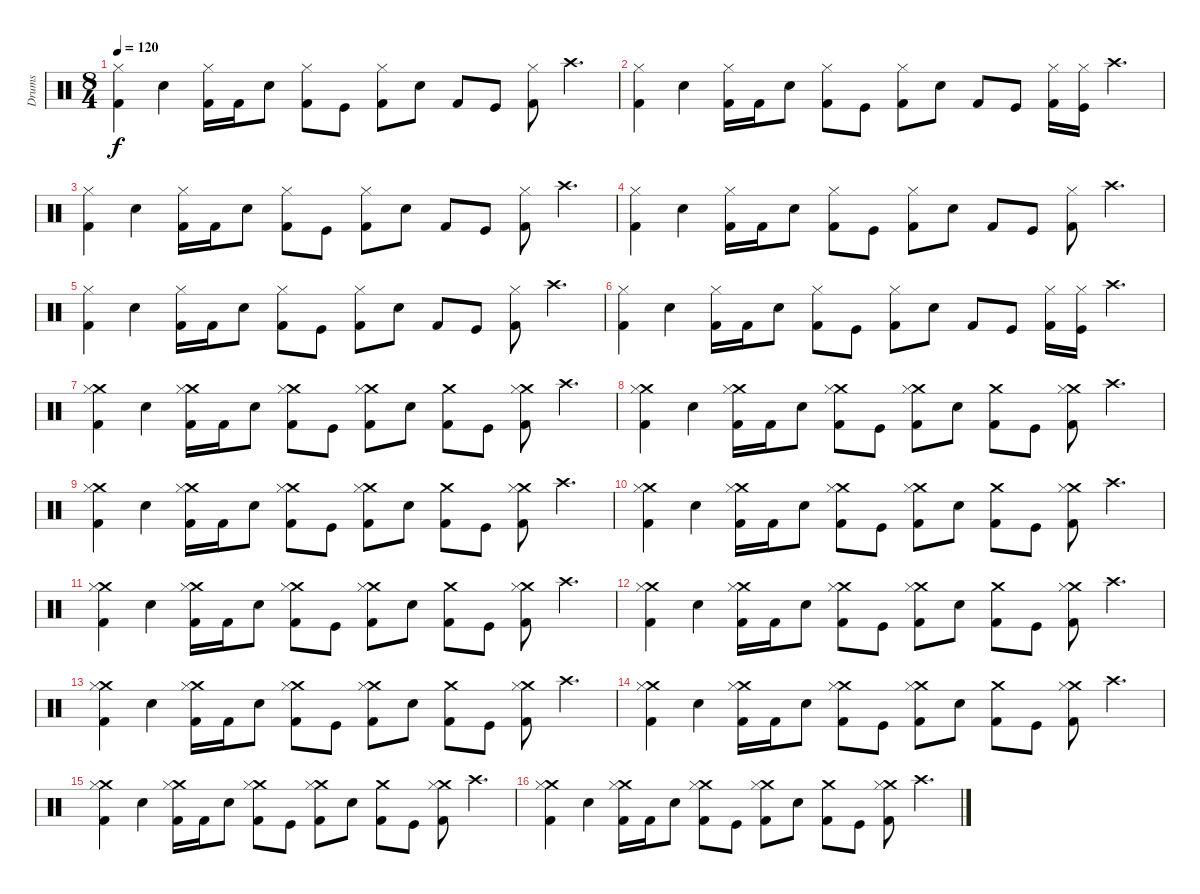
\track ("Drums" "Drums") {instrument percussion}
\staff {score}
\articulation defaults
\ts (8 4)
\tempo 120
\clef neutral
\ks c
("Hi-Hat (closed)" "Kick (hit) 2").4{dy f} "Snare (hit) 2".4 ("Hi-Hat (closed)" "Kick (hit) 2").16 "Kick (hit) 2".16 "Snare (hit) 2".8 ("Hi-Hat (closed)" "Kick (hit) 2").8 "Kick (hit)".8 ("Hi-Hat (closed)" "Kick (hit) 2").8 "Snare (hit) 2".8 "Kick (hit) 2".8 "Kick (hit)".8 ("Hi-Hat (closed)" "Kick (hit) 2").8 "Crash high (hit)".4{d} |
("Hi-Hat (closed)" "Kick (hit) 2").4 "Snare (hit) 2".4 ("Hi-Hat (closed)" "Kick (hit) 2").16 "Kick (hit) 2".16 "Snare (hit) 2".8 ("Hi-Hat (closed)" "Kick (hit) 2").8 "Kick (hit)".8 ("Hi-Hat (closed)" "Kick (hit) 2").8 "Snare (hit) 2".8 "Kick (hit) 2".8 "Kick (hit)".8 ("Hi-Hat (closed)" "Kick (hit) 2").16 ("Hi-Hat (closed)" "Kick (hit)").16 "Crash high (hit)".4{d} |
("Hi-Hat (closed)" "Kick (hit) 2").4 "Snare (hit) 2".4 ("Hi-Hat (closed)" "Kick (hit) 2").16 "Kick (hit) 2".16 "Snare (hit) 2".8 ("Hi-Hat (closed)" "Kick (hit) 2").8 "Kick (hit)".8 ("Hi-Hat (closed)" "Kick (hit) 2").8 "Snare (hit) 2".8 "Kick (hit) 2".8 "Kick (hit)".8 ("Hi-Hat (closed)" "Kick (hit) 2").8 "Crash high (hit)".4{d} |
("Hi-Hat (closed)" "Kick (hit) 2").4 "Snare (hit) 2".4 ("Hi-Hat (closed)" "Kick (hit) 2").16 "Kick (hit) 2".16 "Snare (hit) 2".8 ("Hi-Hat (closed)" "Kick (hit) 2").8 "Kick (hit)".8 ("Hi-Hat (closed)" "Kick (hit) 2").8 "Snare (hit) 2".8 "Kick (hit) 2".8 "Kick (hit)".8 ("Hi-Hat (closed)" "Kick (hit) 2").8 "Crash high (hit)".4{d} |
("Hi-Hat (closed)" "Kick (hit) 2").4 "Snare (hit) 2".4 ("Hi-Hat (closed)" "Kick (hit) 2").16 "Kick (hit) 2".16 "Snare (hit) 2".8 ("Hi-Hat (closed)" "Kick (hit) 2").8 "Kick (hit)".8 ("Hi-Hat (closed)" "Kick (hit) 2").8 "Snare (hit) 2".8 "Kick (hit) 2".8 "Kick (hit)".8 ("Hi-Hat (closed)" "Kick (hit) 2").8 "Crash high (hit)".4{d} |
("Hi-Hat (closed)" "Kick (hit) 2").4 "Snare (hit) 2".4 ("Hi-Hat (closed)" "Kick (hit) 2").16 "Kick (hit) 2".16 "Snare (hit) 2".8 ("Hi-Hat (closed)" "Kick (hit) 2").8 "Kick (hit)".8 ("Hi-Hat (closed)" "Kick (hit) 2").8 "Snare (hit) 2".8 "Kick (hit) 2".8 "Kick (hit)".8 ("Hi-Hat (closed)" "Kick (hit) 2").16 ("Hi-Hat (closed)" "Kick (hit)").16 "Crash high (hit)".4{d} |
("Crash medium (hit)" "Hi-Hat (closed)" "Kick (hit) 2").4 "Snare (hit) 2".4 ("Crash medium (hit)" "Hi-Hat (closed)" "Kick (hit) 2").16 "Kick (hit) 2".16 "Snare (hit) 2".8 ("Crash medium (hit)" "Hi-Hat (closed)" "Kick (hit) 2").8 "Kick (hit)".8 ("Crash medium (hit)" "Hi-Hat (closed)" "Kick (hit) 2").8 "Snare (hit) 2".8 ("Crash medium (hit)" "Kick (hit) 2").8 "Kick (hit)".8 ("Crash medium (hit)" "Hi-Hat (closed)" "Kick (hit) 2").8 "Crash high (hit)".4{d} |
("Crash medium (hit)" "Hi-Hat (closed)" "Kick (hit) 2").4 "Snare (hit) 2".4 ("Crash medium (hit)" "Hi-Hat (closed)" "Kick (hit) 2").16 "Kick (hit) 2".16 "Snare (hit) 2".8 ("Crash medium (hit)" "Hi-Hat (closed)" "Kick (hit) 2").8 "Kick (hit)".8 ("Crash medium (hit)" "Hi-Hat (closed)" "Kick (hit) 2").8 "Snare (hit) 2".8 ("Crash medium (hit)" "Kick (hit) 2").8 "Kick (hit)".8 ("Crash medium (hit)" "Hi-Hat (closed)" "Kick (hit) 2").8 "Crash high (hit)".4{d} |
("Crash medium (hit)" "Hi-Hat (closed)" "Kick (hit) 2").4 "Snare (hit) 2".4 ("Crash medium (hit)" "Hi-Hat (closed)" "Kick (hit) 2").16 "Kick (hit) 2".16 "Snare (hit) 2".8 ("Crash medium (hit)" "Hi-Hat (closed)" "Kick (hit) 2").8 "Kick (hit)".8 ("Crash medium (hit)" "Hi-Hat (closed)" "Kick (hit) 2").8 "Snare (hit) 2".8 ("Crash medium (hit)" "Kick (hit) 2").8 "Kick (hit)".8 ("Crash medium (hit)" "Hi-Hat (closed)" "Kick (hit) 2").8 "Crash high (hit)".4{d} |
("Crash medium (hit)" "Hi-Hat (closed)" "Kick (hit) 2").4 "Snare (hit) 2".4 ("Crash medium (hit)" "Hi-Hat (closed)" "Kick (hit) 2").16 "Kick (hit) 2".16 "Snare (hit) 2".8 ("Crash medium (hit)" "Hi-Hat (closed)" "Kick (hit) 2").8 "Kick (hit)".8 ("Crash medium (hit)" "Hi-Hat (closed)" "Kick (hit) 2").8 "Snare (hit) 2".8 ("Crash medium (hit)" "Kick (hit) 2").8 "Kick (hit)".8 ("Crash medium (hit)" "Hi-Hat (closed)" "Kick (hit) 2").8 "Crash high (hit)".4{d} |
("Crash medium (hit)" "Hi-Hat (closed)" "Kick (hit) 2").4 "Snare (hit) 2".4 ("Crash medium (hit)" "Hi-Hat (closed)" "Kick (hit) 2").16 "Kick (hit) 2".16 "Snare (hit) 2".8 ("Crash medium (hit)" "Hi-Hat (closed)" "Kick (hit) 2").8 "Kick (hit)".8 ("Crash medium (hit)" "Hi-Hat (closed)" "Kick (hit) 2").8 "Snare (hit) 2".8 ("Crash medium (hit)" "Kick (hit) 2").8 "Kick (hit)".8 ("Crash medium (hit)" "Hi-Hat (closed)" "Kick (hit) 2").8 "Crash high (hit)".4{d} |
("Crash medium (hit)" "Hi-Hat (closed)" "Kick (hit) 2").4 "Snare (hit) 2".4 ("Crash medium (hit)" "Hi-Hat (closed)" "Kick (hit) 2").16 "Kick (hit) 2".16 "Snare (hit) 2".8 ("Crash medium (hit)" "Hi-Hat (closed)" "Kick (hit) 2").8 "Kick (hit)".8 ("Crash medium (hit)" "Hi-Hat (closed)" "Kick (hit) 2").8 "Snare (hit) 2".8 ("Crash medium (hit)" "Kick (hit) 2").8 "Kick (hit)".8 ("Crash medium (hit)" "Hi-Hat (closed)" "Kick (hit) 2").8 "Crash high (hit)".4{d} |
("Crash medium (hit)" "Hi-Hat (closed)" "Kick (hit) 2").4 "Snare (hit) 2".4 ("Crash medium (hit)" "Hi-Hat (closed)" "Kick (hit) 2").16 "Kick (hit) 2".16 "Snare (hit) 2".8 ("Crash medium (hit)" "Hi-Hat (closed)" "Kick (hit) 2").8 "Kick (hit)".8 ("Crash medium (hit)" "Hi-Hat (closed)" "Kick (hit) 2").8 "Snare (hit) 2".8 ("Crash medium (hit)" "Kick (hit) 2").8 "Kick (hit)".8 ("Crash medium (hit)" "Hi-Hat (closed)" "Kick (hit) 2").8 "Crash high (hit)".4{d} |
("Crash medium (hit)" "Hi-Hat (closed)" "Kick (hit) 2").4 "Snare (hit) 2".4 ("Crash medium (hit)" "Hi-Hat (closed)" "Kick (hit) 2").16 "Kick (hit) 2".16 "Snare (hit) 2".8 ("Crash medium (hit)" "Hi-Hat (closed)" "Kick (hit) 2").8 "Kick (hit)".8 ("Crash medium (hit)" "Hi-Hat (closed)" "Kick (hit) 2").8 "Snare (hit) 2".8 ("Crash medium (hit)" "Kick (hit) 2").8 "Kick (hit)".8 ("Crash medium (hit)" "Hi-Hat (closed)" "Kick (hit) 2").8 "Crash high (hit)".4{d} |
("Crash medium (hit)" "Hi-Hat (closed)" "Kick (hit) 2").4 "Snare (hit) 2".4 ("Crash medium (hit)" "Hi-Hat (closed)" "Kick (hit) 2").16 "Kick (hit) 2".16 "Snare (hit) 2".8 ("Crash medium (hit)" "Hi-Hat (closed)" "Kick (hit) 2").8 "Kick (hit)".8 ("Crash medium (hit)" "Hi-Hat (closed)" "Kick (hit) 2").8 "Snare (hit) 2".8 ("Crash medium (hit)" "Kick (hit) 2").8 "Kick (hit)".8 ("Crash medium (hit)" "Hi-Hat (closed)" "Kick (hit) 2").8 "Crash high (hit)".4{d} |
("Crash medium (hit)" "Hi-Hat (closed)" "Kick (hit) 2").4 "Snare (hit) 2".4 ("Crash medium (hit)" "Hi-Hat (closed)" "Kick (hit) 2").16 "Kick (hit) 2".16 "Snare (hit) 2".8 ("Crash medium (hit)" "Hi-Hat (closed)" "Kick (hit) 2").8 "Kick (hit)".8 ("Crash medium (hit)" "Hi-Hat (closed)" "Kick (hit) 2").8 "Snare (hit) 2".8 ("Crash medium (hit)" "Kick (hit) 2").8 "Kick (hit)".8 ("Crash medium (hit)" "Hi-Hat (closed)" "Kick (hit) 2").8 "Crash high (hit)".4{d}
